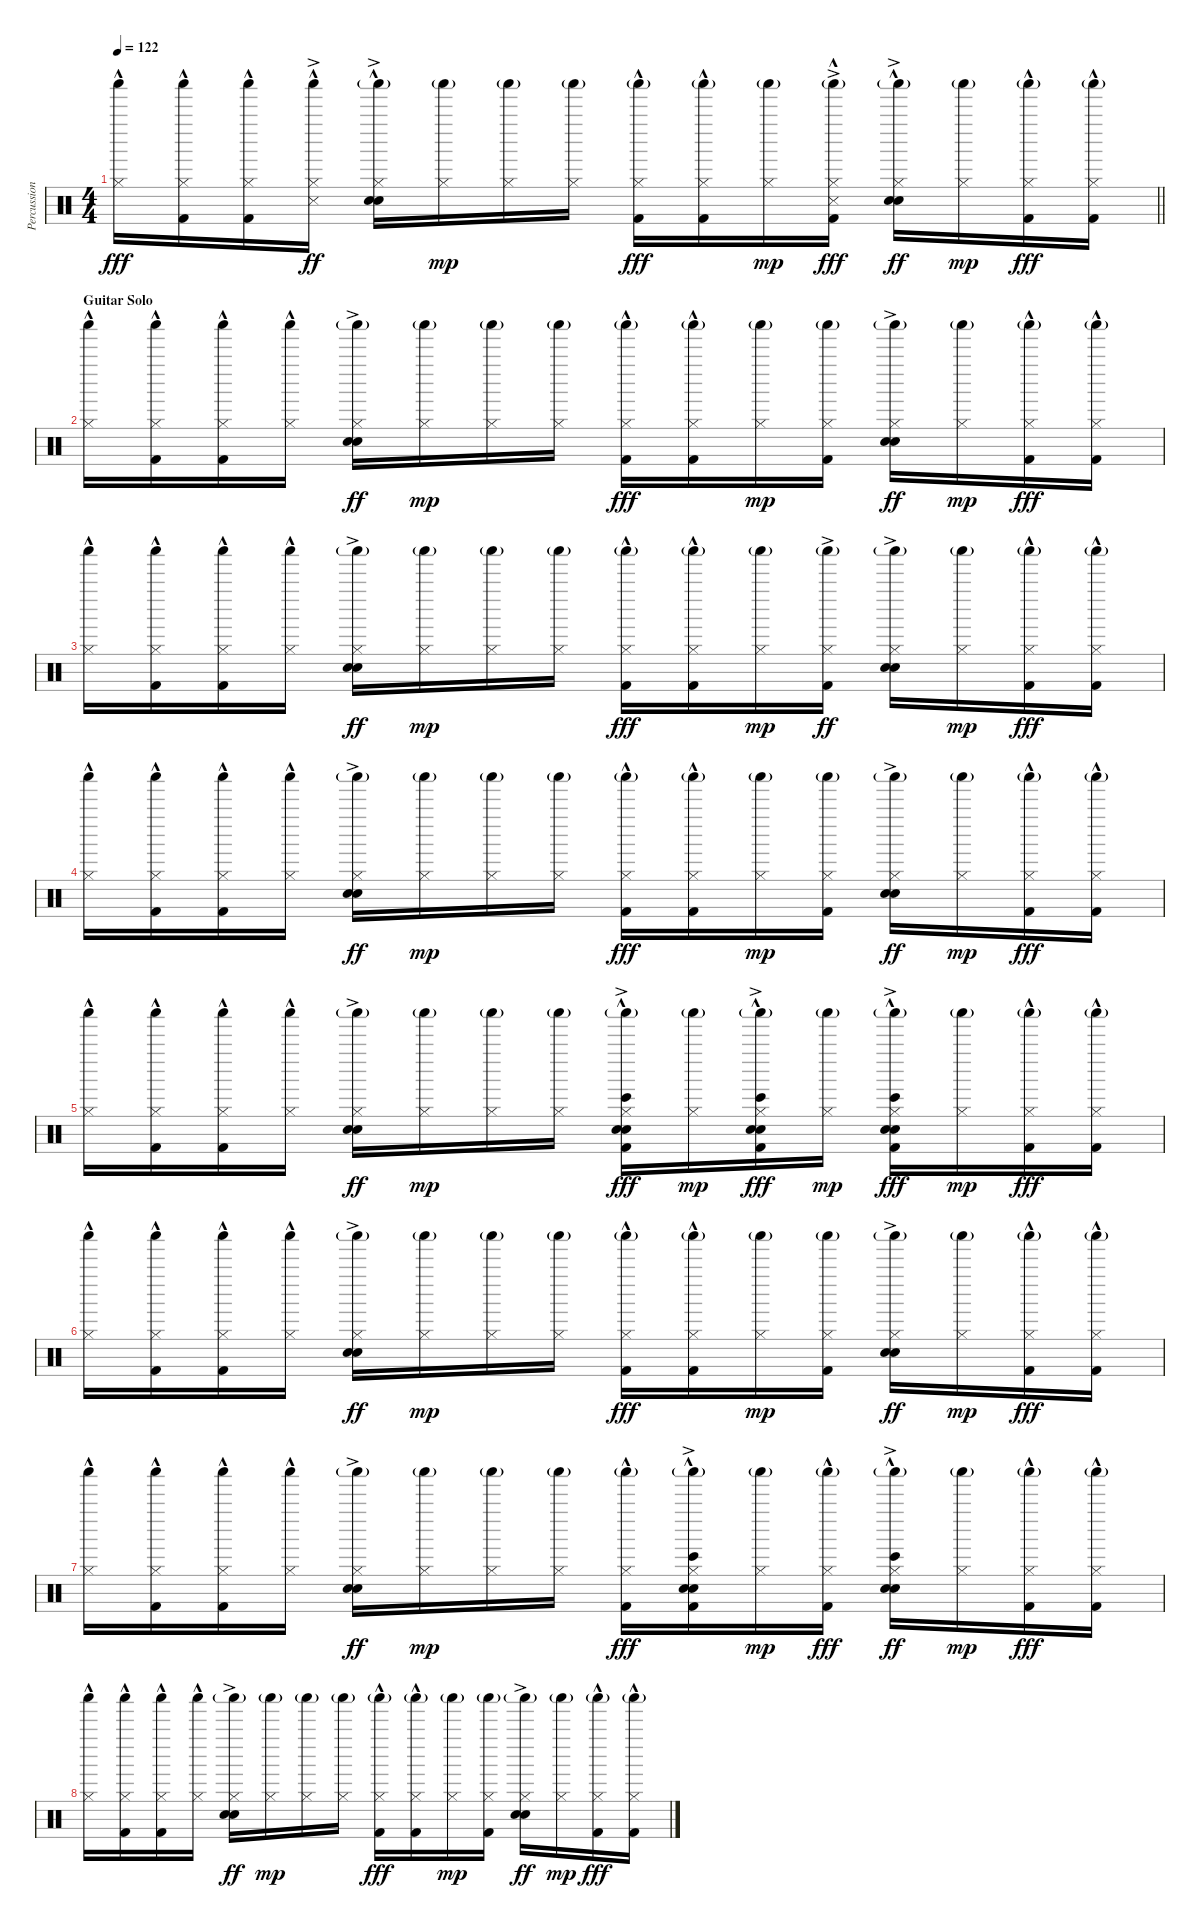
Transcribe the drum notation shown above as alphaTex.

\track ("Percussion" "Percussion") {instrument percussion}
\staff {score}
\articulation defaults
\ts (4 4)
\tempo 122
\clef neutral
\barLineRight lightlight
\ks c
("Shaker (hit)" "Hi-Hat (closed)"{hac}).16{dy fff} ("Shaker (hit)" "Hi-Hat (closed)"{hac} "Kick (hit) 2"{hac}).16 ("Shaker (hit)" "Hi-Hat (closed)"{hac} "Kick (hit) 2"{hac}).16 ("Shaker (hit)" "Hi-Hat (closed)"{hac} "Snare (side stick) 3"{ac}).16{dy ff} ("Shaker (hit)"{g} "Hi-Hat (closed)" "Hand Clap (hit)"{hac} "Snare (hit) 2"{ac}).16 ("Shaker (hit)"{g} "Hi-Hat (closed)").16{dy mp} ("Shaker (hit)"{g} "Hi-Hat (closed)").16 ("Shaker (hit)"{g} "Hi-Hat (closed)").16 ("Shaker (hit)"{g} "Hi-Hat (closed)" "Kick (hit) 2"{hac}).16{dy fff} ("Shaker (hit)"{g} "Hi-Hat (closed)" "Kick (hit) 2"{hac}).16 ("Shaker (hit)"{g} "Hi-Hat (closed)").16{dy mp} ("Shaker (hit)"{g} "Hi-Hat (closed)" "Snare (side stick) 3"{ac} "Kick (hit) 2"{hac}).16{dy fff} ("Shaker (hit)"{g} "Hi-Hat (closed)" "Hand Clap (hit)"{hac} "Snare (hit) 2"{ac}).16{dy ff} ("Shaker (hit)"{g} "Hi-Hat (closed)").16{dy mp} ("Shaker (hit)"{g} "Hi-Hat (closed)" "Kick (hit) 2"{hac}).16{dy fff} ("Shaker (hit)"{g} "Hi-Hat (closed)" "Kick (hit) 2"{hac}).16 |
\section ("" "Guitar Solo")
("Shaker (hit)" "Hi-Hat (closed)"{hac}).16 ("Shaker (hit)" "Hi-Hat (closed)"{hac} "Kick (hit) 2"{hac}).16 ("Shaker (hit)" "Hi-Hat (closed)"{hac} "Kick (hit) 2"{hac}).16 ("Shaker (hit)" "Hi-Hat (closed)"{hac}).16 ("Shaker (hit)"{g} "Hi-Hat (closed)" "Hand Clap (hit)"{ac} "Snare (hit) 2"{ac}).16{dy ff} ("Shaker (hit)"{g} "Hi-Hat (closed)").16{dy mp} ("Shaker (hit)"{g} "Hi-Hat (closed)").16 ("Shaker (hit)"{g} "Hi-Hat (closed)").16 ("Shaker (hit)"{g} "Hi-Hat (closed)" "Kick (hit) 2"{hac}).16{dy fff} ("Shaker (hit)"{g} "Hi-Hat (closed)" "Kick (hit) 2"{hac}).16 ("Shaker (hit)"{g} "Hi-Hat (closed)").16{dy mp} ("Shaker (hit)"{g} "Hi-Hat (closed)" "Kick (hit) 2").16 ("Shaker (hit)"{g} "Hi-Hat (closed)" "Hand Clap (hit)"{ac} "Snare (hit) 2"{ac}).16{dy ff} ("Shaker (hit)"{g} "Hi-Hat (closed)").16{dy mp} ("Shaker (hit)"{g} "Hi-Hat (closed)" "Kick (hit) 2"{hac}).16{dy fff} ("Shaker (hit)"{g} "Hi-Hat (closed)" "Kick (hit) 2"{hac}).16 |
("Shaker (hit)" "Hi-Hat (closed)"{hac}).16 ("Shaker (hit)" "Hi-Hat (closed)"{hac} "Kick (hit) 2"{hac}).16 ("Shaker (hit)" "Hi-Hat (closed)"{hac} "Kick (hit) 2"{hac}).16 ("Shaker (hit)" "Hi-Hat (closed)"{hac}).16 ("Shaker (hit)"{g} "Hi-Hat (closed)" "Hand Clap (hit)"{ac} "Snare (hit) 2"{ac}).16{dy ff} ("Shaker (hit)"{g} "Hi-Hat (closed)").16{dy mp} ("Shaker (hit)"{g} "Hi-Hat (closed)").16 ("Shaker (hit)"{g} "Hi-Hat (closed)").16 ("Shaker (hit)"{g} "Hi-Hat (closed)" "Kick (hit) 2"{hac}).16{dy fff} ("Shaker (hit)"{g} "Hi-Hat (closed)" "Kick (hit) 2"{hac}).16 ("Shaker (hit)"{g} "Hi-Hat (closed)").16{dy mp} ("Shaker (hit)"{g} "Hi-Hat (closed)" "Kick (hit) 2"{ac}).16{dy ff} ("Shaker (hit)"{g} "Hi-Hat (closed)" "Hand Clap (hit)"{ac} "Snare (hit) 2"{ac}).16 ("Shaker (hit)"{g} "Hi-Hat (closed)").16{dy mp} ("Shaker (hit)"{g} "Hi-Hat (closed)" "Kick (hit) 2"{hac}).16{dy fff} ("Shaker (hit)"{g} "Hi-Hat (closed)" "Kick (hit) 2"{hac}).16 |
("Shaker (hit)" "Hi-Hat (closed)"{hac}).16 ("Shaker (hit)" "Hi-Hat (closed)"{hac} "Kick (hit) 2"{hac}).16 ("Shaker (hit)" "Hi-Hat (closed)"{hac} "Kick (hit) 2"{hac}).16 ("Shaker (hit)" "Hi-Hat (closed)"{hac}).16 ("Shaker (hit)"{g} "Hi-Hat (closed)" "Hand Clap (hit)"{ac} "Snare (hit) 2"{ac}).16{dy ff} ("Shaker (hit)"{g} "Hi-Hat (closed)").16{dy mp} ("Shaker (hit)"{g} "Hi-Hat (closed)").16 ("Shaker (hit)"{g} "Hi-Hat (closed)").16 ("Shaker (hit)"{g} "Hi-Hat (closed)" "Kick (hit) 2"{hac}).16{dy fff} ("Shaker (hit)"{g} "Hi-Hat (closed)" "Kick (hit) 2"{hac}).16 ("Shaker (hit)"{g} "Hi-Hat (closed)").16{dy mp} ("Shaker (hit)"{g} "Hi-Hat (closed)" "Kick (hit) 2").16 ("Shaker (hit)"{g} "Hi-Hat (closed)" "Hand Clap (hit)"{ac} "Snare (hit) 2"{ac}).16{dy ff} ("Shaker (hit)"{g} "Hi-Hat (closed)").16{dy mp} ("Shaker (hit)"{g} "Hi-Hat (closed)" "Kick (hit) 2"{hac}).16{dy fff} ("Shaker (hit)"{g} "Hi-Hat (closed)" "Kick (hit) 2"{hac}).16 |
("Shaker (hit)" "Hi-Hat (closed)"{hac}).16 ("Shaker (hit)" "Hi-Hat (closed)"{hac} "Kick (hit) 2"{hac}).16 ("Shaker (hit)" "Hi-Hat (closed)"{hac} "Kick (hit) 2"{hac}).16 ("Shaker (hit)" "Hi-Hat (closed)"{hac}).16 ("Shaker (hit)"{g} "Hi-Hat (closed)" "Hand Clap (hit)"{ac} "Snare (hit) 2"{ac}).16{dy ff} ("Shaker (hit)"{g} "Hi-Hat (closed)").16{dy mp} ("Shaker (hit)"{g} "Hi-Hat (closed)").16 ("Shaker (hit)"{g} "Hi-Hat (closed)").16 ("Bongo High (hit)"{hac} "Shaker (hit)"{g} "Hi-Hat (closed)" "Hand Clap (hit)"{hac} "Snare (hit) 2"{ac} "Kick (hit) 2"{hac}).16{dy fff} ("Shaker (hit)"{g} "Hi-Hat (closed)").16{dy mp} ("Bongo High (hit)"{hac} "Shaker (hit)"{g} "Hi-Hat (closed)" "Hand Clap (hit)"{hac} "Snare (hit) 2"{ac} "Kick (hit) 2"{hac}).16{dy fff} ("Shaker (hit)"{g} "Hi-Hat (closed)").16{dy mp} ("Bongo High (hit)"{hac} "Shaker (hit)"{g} "Hi-Hat (closed)" "Hand Clap (hit)"{hac} "Snare (hit) 2"{ac} "Kick (hit) 2"{hac}).16{dy fff} ("Shaker (hit)"{g} "Hi-Hat (closed)").16{dy mp} ("Shaker (hit)"{g} "Hi-Hat (closed)" "Kick (hit) 2"{hac}).16{dy fff} ("Shaker (hit)"{g} "Hi-Hat (closed)" "Kick (hit) 2"{hac}).16 |
("Shaker (hit)" "Hi-Hat (closed)"{hac}).16 ("Shaker (hit)" "Hi-Hat (closed)"{hac} "Kick (hit) 2"{hac}).16 ("Shaker (hit)" "Hi-Hat (closed)"{hac} "Kick (hit) 2"{hac}).16 ("Shaker (hit)" "Hi-Hat (closed)"{hac}).16 ("Shaker (hit)"{g} "Hi-Hat (closed)" "Hand Clap (hit)"{ac} "Snare (hit) 2"{ac}).16{dy ff} ("Shaker (hit)"{g} "Hi-Hat (closed)").16{dy mp} ("Shaker (hit)"{g} "Hi-Hat (closed)").16 ("Shaker (hit)"{g} "Hi-Hat (closed)").16 ("Shaker (hit)"{g} "Hi-Hat (closed)" "Kick (hit) 2"{hac}).16{dy fff} ("Shaker (hit)"{g} "Hi-Hat (closed)" "Kick (hit) 2"{hac}).16 ("Shaker (hit)"{g} "Hi-Hat (closed)").16{dy mp} ("Shaker (hit)"{g} "Hi-Hat (closed)" "Kick (hit) 2").16 ("Shaker (hit)"{g} "Hi-Hat (closed)" "Hand Clap (hit)"{ac} "Snare (hit) 2"{ac}).16{dy ff} ("Shaker (hit)"{g} "Hi-Hat (closed)").16{dy mp} ("Shaker (hit)"{g} "Hi-Hat (closed)" "Kick (hit) 2"{hac}).16{dy fff} ("Shaker (hit)"{g} "Hi-Hat (closed)" "Kick (hit) 2"{hac}).16 |
("Shaker (hit)" "Hi-Hat (closed)"{hac}).16 ("Shaker (hit)" "Hi-Hat (closed)"{hac} "Kick (hit) 2"{hac}).16 ("Shaker (hit)" "Hi-Hat (closed)"{hac} "Kick (hit) 2"{hac}).16 ("Shaker (hit)" "Hi-Hat (closed)"{hac}).16 ("Shaker (hit)"{g} "Hi-Hat (closed)" "Hand Clap (hit)"{ac} "Snare (hit) 2"{ac}).16{dy ff} ("Shaker (hit)"{g} "Hi-Hat (closed)").16{dy mp} ("Shaker (hit)"{g} "Hi-Hat (closed)").16 ("Shaker (hit)"{g} "Hi-Hat (closed)").16 ("Shaker (hit)"{g} "Hi-Hat (closed)" "Kick (hit) 2"{hac}).16{dy fff} ("Bongo High (hit)"{hac} "Shaker (hit)"{g} "Hi-Hat (closed)" "Hand Clap (hit)"{hac} "Snare (hit) 2"{ac} "Kick (hit) 2"{hac}).16 ("Shaker (hit)"{g} "Hi-Hat (closed)").16{dy mp} ("Shaker (hit)"{g} "Hi-Hat (closed)" "Kick (hit) 2"{hac}).16{dy fff} ("Bongo High (hit)"{hac} "Shaker (hit)"{g} "Hi-Hat (closed)" "Hand Clap (hit)"{hac} "Snare (hit) 2"{ac}).16{dy ff} ("Shaker (hit)"{g} "Hi-Hat (closed)").16{dy mp} ("Shaker (hit)"{g} "Hi-Hat (closed)" "Kick (hit) 2"{hac}).16{dy fff} ("Shaker (hit)"{g} "Hi-Hat (closed)" "Kick (hit) 2"{hac}).16 |
("Shaker (hit)" "Hi-Hat (closed)"{hac}).16 ("Shaker (hit)" "Hi-Hat (closed)"{hac} "Kick (hit) 2"{hac}).16 ("Shaker (hit)" "Hi-Hat (closed)"{hac} "Kick (hit) 2"{hac}).16 ("Shaker (hit)" "Hi-Hat (closed)"{hac}).16 ("Shaker (hit)"{g} "Hi-Hat (closed)" "Hand Clap (hit)"{ac} "Snare (hit) 2"{ac}).16{dy ff} ("Shaker (hit)"{g} "Hi-Hat (closed)").16{dy mp} ("Shaker (hit)"{g} "Hi-Hat (closed)").16 ("Shaker (hit)"{g} "Hi-Hat (closed)").16 ("Shaker (hit)"{g} "Hi-Hat (closed)" "Kick (hit) 2"{hac}).16{dy fff} ("Shaker (hit)"{g} "Hi-Hat (closed)" "Kick (hit) 2"{hac}).16 ("Shaker (hit)"{g} "Hi-Hat (closed)").16{dy mp} ("Shaker (hit)"{g} "Hi-Hat (closed)" "Kick (hit) 2").16 ("Shaker (hit)"{g} "Hi-Hat (closed)" "Hand Clap (hit)"{ac} "Snare (hit) 2"{ac}).16{dy ff} ("Shaker (hit)"{g} "Hi-Hat (closed)").16{dy mp} ("Shaker (hit)"{g} "Hi-Hat (closed)" "Kick (hit) 2"{hac}).16{dy fff} ("Shaker (hit)"{g} "Hi-Hat (closed)" "Kick (hit) 2"{hac}).16
